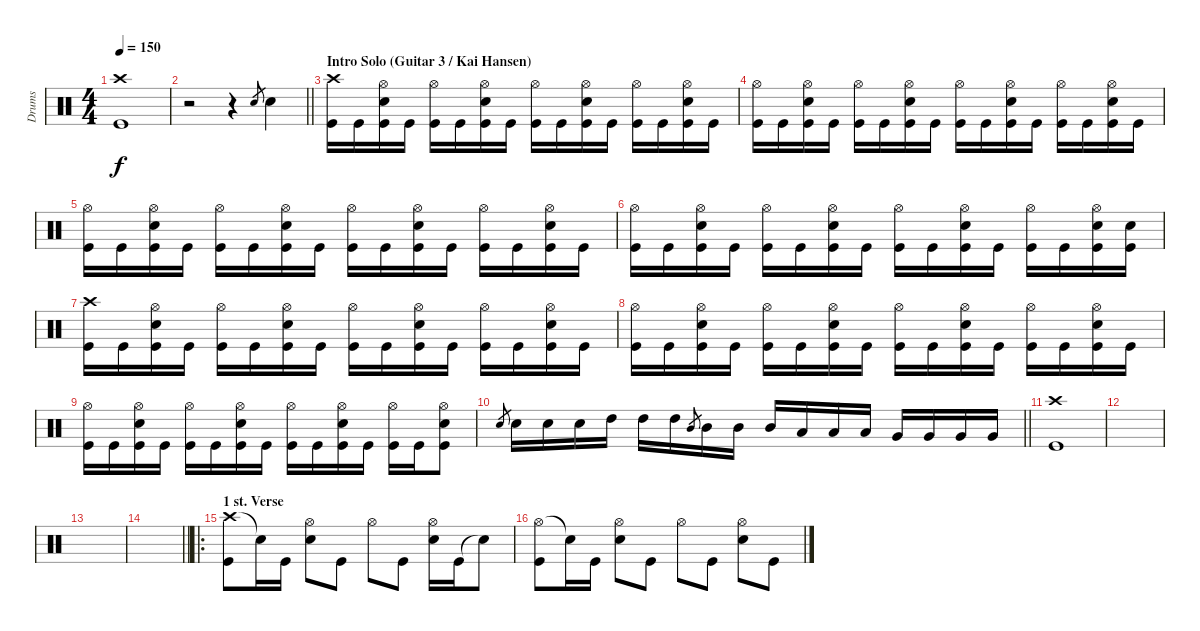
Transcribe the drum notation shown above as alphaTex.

\track ("Drums" "Drums") {instrument percussion}
\staff {score}
\articulation defaults
\ts (4 4)
\tempo 150
\clef neutral
\ks c
("Crash high (hit)" "Kick (hit)").1{dy f} |
\barLineRight lightlight
r.2 r.4 "Electric Snare (hit)".8{gr} "Electric Snare (hit)".4 |
\section ("" "Intro Solo (Guitar 3 / Kai Hansen)")
("Crash high (hit)" "Kick (hit)").16 "Kick (hit)".16 ("Hi-Hat (open)" "Snare (hit) 2" "Kick (hit)").16 "Kick (hit)".16 ("Hi-Hat (open)" "Kick (hit)").16 "Kick (hit)".16 ("Hi-Hat (open)" "Snare (hit) 2" "Kick (hit)").16 "Kick (hit)".16 ("Hi-Hat (open)" "Kick (hit)").16 "Kick (hit)".16 ("Hi-Hat (open)" "Snare (hit) 2" "Kick (hit)").16 "Kick (hit)".16 ("Hi-Hat (open)" "Kick (hit)").16 "Kick (hit)".16 ("Hi-Hat (open)" "Snare (hit) 2" "Kick (hit)").16 "Kick (hit)".16 |
("Hi-Hat (open)" "Kick (hit)").16 "Kick (hit)".16 ("Hi-Hat (open)" "Snare (hit) 2" "Kick (hit)").16 "Kick (hit)".16 ("Hi-Hat (open)" "Kick (hit)").16 "Kick (hit)".16 ("Hi-Hat (open)" "Snare (hit) 2" "Kick (hit)").16 "Kick (hit)".16 ("Hi-Hat (open)" "Kick (hit)").16 "Kick (hit)".16 ("Hi-Hat (open)" "Snare (hit) 2" "Kick (hit)").16 "Kick (hit)".16 ("Hi-Hat (open)" "Kick (hit)").16 "Kick (hit)".16 ("Hi-Hat (open)" "Snare (hit) 2" "Kick (hit)").16 "Kick (hit)".16 |
("Hi-Hat (open)" "Kick (hit)").16 "Kick (hit)".16 ("Hi-Hat (open)" "Snare (hit) 2" "Kick (hit)").16 "Kick (hit)".16 ("Hi-Hat (open)" "Kick (hit)").16 "Kick (hit)".16 ("Hi-Hat (open)" "Snare (hit) 2" "Kick (hit)").16 "Kick (hit)".16 ("Hi-Hat (open)" "Kick (hit)").16 "Kick (hit)".16 ("Hi-Hat (open)" "Snare (hit) 2" "Kick (hit)").16 "Kick (hit)".16 ("Hi-Hat (open)" "Kick (hit)").16 "Kick (hit)".16 ("Hi-Hat (open)" "Snare (hit) 2" "Kick (hit)").16 "Kick (hit)".16 |
("Hi-Hat (open)" "Kick (hit)").16 "Kick (hit)".16 ("Hi-Hat (open)" "Snare (hit) 2" "Kick (hit)").16 "Kick (hit)".16 ("Hi-Hat (open)" "Kick (hit)").16 "Kick (hit)".16 ("Hi-Hat (open)" "Snare (hit) 2" "Kick (hit)").16 "Kick (hit)".16 ("Hi-Hat (open)" "Kick (hit)").16 "Kick (hit)".16 ("Hi-Hat (open)" "Snare (hit) 2" "Kick (hit)").16 "Kick (hit)".16 ("Hi-Hat (open)" "Kick (hit)").16 "Kick (hit)".16 ("Hi-Hat (open)" "Snare (hit) 2" "Kick (hit)").16 ("Snare (hit) 2" "Kick (hit)").16 |
("Crash high (hit)" "Kick (hit)").16 "Kick (hit)".16 ("Hi-Hat (open)" "Snare (hit) 2" "Kick (hit)").16 "Kick (hit)".16 ("Hi-Hat (open)" "Kick (hit)").16 "Kick (hit)".16 ("Hi-Hat (open)" "Snare (hit) 2" "Kick (hit)").16 "Kick (hit)".16 ("Hi-Hat (open)" "Kick (hit)").16 "Kick (hit)".16 ("Hi-Hat (open)" "Snare (hit) 2" "Kick (hit)").16 "Kick (hit)".16 ("Hi-Hat (open)" "Kick (hit)").16 "Kick (hit)".16 ("Hi-Hat (open)" "Snare (hit) 2" "Kick (hit)").16 "Kick (hit)".16 |
("Hi-Hat (open)" "Kick (hit)").16 "Kick (hit)".16 ("Hi-Hat (open)" "Snare (hit) 2" "Kick (hit)").16 "Kick (hit)".16 ("Hi-Hat (open)" "Kick (hit)").16 "Kick (hit)".16 ("Hi-Hat (open)" "Snare (hit) 2" "Kick (hit)").16 "Kick (hit)".16 ("Hi-Hat (open)" "Kick (hit)").16 "Kick (hit)".16 ("Hi-Hat (open)" "Snare (hit) 2" "Kick (hit)").16 "Kick (hit)".16 ("Hi-Hat (open)" "Kick (hit)").16 "Kick (hit)".16 ("Hi-Hat (open)" "Snare (hit) 2" "Kick (hit)").16 "Kick (hit)".16 |
("Hi-Hat (open)" "Kick (hit)").16 "Kick (hit)".16 ("Hi-Hat (open)" "Snare (hit) 2" "Kick (hit)").16 "Kick (hit)".16 ("Hi-Hat (open)" "Kick (hit)").16 "Kick (hit)".16 ("Hi-Hat (open)" "Snare (hit) 2" "Kick (hit)").16 "Kick (hit)".16 ("Hi-Hat (open)" "Kick (hit)").16 "Kick (hit)".16 ("Hi-Hat (open)" "Snare (hit) 2" "Kick (hit)").16 "Kick (hit)".16 ("Hi-Hat (open)" "Kick (hit)").16 "Kick (hit)".16 ("Hi-Hat (open)" "Snare (hit) 2" "Kick (hit)").8 |
\barLineRight lightlight "Snare (hit) 2".8{gr} "Snare (hit) 2".16 "Snare (hit) 2".16 "Snare (hit) 2".16 "High Tom (hit)".16 "High Tom (hit)".16 "High Tom (hit)".16 "Mid Tom (hit)".8{gr} "Mid Tom (hit)".16 "Mid Tom (hit)".16 "Mid Tom (hit)".16 "Low Tom (hit)".16 "Low Tom (hit)".16 "Low Tom (hit)".16 "Very Low Tom (hit)".16 "Very Low Tom (hit)".16 "Very Low Tom (hit)".16 "Very Low Tom (hit)".16
|
("Crash high (hit)" "Kick (hit)").1 |
|
|
\barLineRight lightlight
|
\ro
\section ("" "1 st. Verse")
("Crash high (hit)" "Kick (hit)").8 "Snare (hit)"{t}.16 "Kick (hit)".16 ("Hi-Hat (open)" "Snare (hit) 2").8 "Kick (hit)".8 "Hi-Hat (open)".8 "Kick (hit)".8 ("Hi-Hat (open)" "Electric Snare (hit)").16 "Kick (hit)".16 "Snare (hit)"{t}.8 |
("Hi-Hat (open)" "Kick (hit)").8 "Snare (hit)"{t}.16 "Kick (hit)".16 ("Hi-Hat (open)" "Snare (hit) 2").8 "Kick (hit)".8 "Hi-Hat (open)".8 "Kick (hit)".8 ("Hi-Hat (open)" "Electric Snare (hit)").8 "Kick (hit)".8
